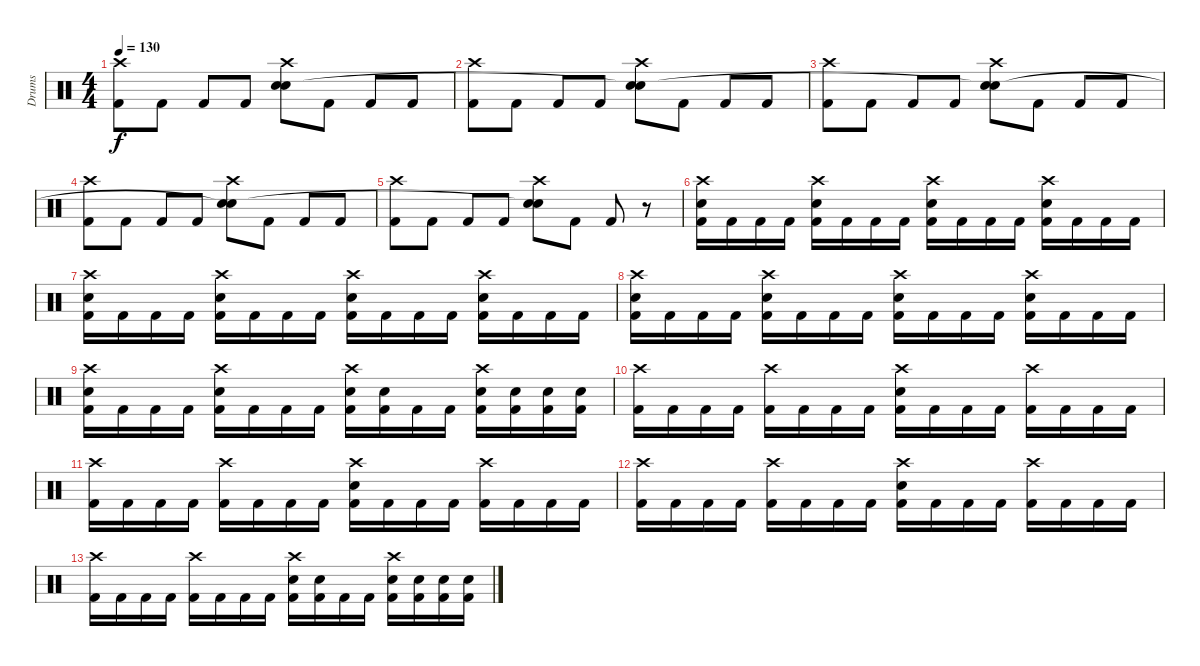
\track ("Drums" "Drums") {instrument percussion}
\staff {score}
\articulation defaults
\ts (4 4)
\tempo 130
\clef neutral
\ks c
("Crash high (hit)" "Kick (hit) 2").8{dy f} "Kick (hit) 2".8 "Kick (hit) 2".8 "Kick (hit) 2".8 ("Crash high (hit)" "Electric Snare (hit)" "Snare (hit)"{t}).8 "Kick (hit) 2".8 "Kick (hit) 2".8 "Kick (hit) 2".8 |
("Crash high (hit)" "Kick (hit) 2").8 "Kick (hit) 2".8 "Kick (hit) 2".8 "Kick (hit) 2".8 ("Crash high (hit)" "Electric Snare (hit)" "Snare (hit)"{t}).8 "Kick (hit) 2".8 "Kick (hit) 2".8 "Kick (hit) 2".8 |
("Crash high (hit)" "Kick (hit) 2").8 "Kick (hit) 2".8 "Kick (hit) 2".8 "Kick (hit) 2".8 ("Crash high (hit)" "Electric Snare (hit)" "Snare (hit)"{t}).8 "Kick (hit) 2".8 "Kick (hit) 2".8 "Kick (hit) 2".8 |
("Crash high (hit)" "Kick (hit) 2").8 "Kick (hit) 2".8 "Kick (hit) 2".8 "Kick (hit) 2".8 ("Crash high (hit)" "Electric Snare (hit)" "Snare (hit)"{t}).8 "Kick (hit) 2".8 "Kick (hit) 2".8 "Kick (hit) 2".8 |
("Crash high (hit)" "Kick (hit) 2").8 "Kick (hit) 2".8 "Kick (hit) 2".8 "Kick (hit) 2".8 ("Crash high (hit)" "Electric Snare (hit)" "Snare (hit)"{t}).8 "Kick (hit) 2".8 "Kick (hit) 2".8 r.8 |
("Crash high (hit)" "Electric Snare (hit)" "Kick (hit) 2").16 "Kick (hit) 2".16 "Kick (hit) 2".16 "Kick (hit) 2".16 ("Crash high (hit)" "Electric Snare (hit)" "Kick (hit) 2").16 "Kick (hit) 2".16 "Kick (hit) 2".16 "Kick (hit) 2".16 ("Crash high (hit)" "Electric Snare (hit)" "Kick (hit) 2").16 "Kick (hit) 2".16 "Kick (hit) 2".16 "Kick (hit) 2".16 ("Crash high (hit)" "Electric Snare (hit)" "Kick (hit) 2").16 "Kick (hit) 2".16 "Kick (hit) 2".16 "Kick (hit) 2".16 |
("Crash high (hit)" "Electric Snare (hit)" "Kick (hit) 2").16 "Kick (hit) 2".16 "Kick (hit) 2".16 "Kick (hit) 2".16 ("Crash high (hit)" "Electric Snare (hit)" "Kick (hit) 2").16 "Kick (hit) 2".16 "Kick (hit) 2".16 "Kick (hit) 2".16 ("Crash high (hit)" "Electric Snare (hit)" "Kick (hit) 2").16 "Kick (hit) 2".16 "Kick (hit) 2".16 "Kick (hit) 2".16 ("Crash high (hit)" "Electric Snare (hit)" "Kick (hit) 2").16 "Kick (hit) 2".16 "Kick (hit) 2".16 "Kick (hit) 2".16 |
("Crash high (hit)" "Electric Snare (hit)" "Kick (hit) 2").16 "Kick (hit) 2".16 "Kick (hit) 2".16 "Kick (hit) 2".16 ("Crash high (hit)" "Electric Snare (hit)" "Kick (hit) 2").16 "Kick (hit) 2".16 "Kick (hit) 2".16 "Kick (hit) 2".16 ("Crash high (hit)" "Electric Snare (hit)" "Kick (hit) 2").16 "Kick (hit) 2".16 "Kick (hit) 2".16 "Kick (hit) 2".16 ("Crash high (hit)" "Electric Snare (hit)" "Kick (hit) 2").16 "Kick (hit) 2".16 "Kick (hit) 2".16 "Kick (hit) 2".16 |
("Crash high (hit)" "Electric Snare (hit)" "Kick (hit) 2").16 "Kick (hit) 2".16 "Kick (hit) 2".16 "Kick (hit) 2".16 ("Crash high (hit)" "Electric Snare (hit)" "Kick (hit) 2").16 "Kick (hit) 2".16 "Kick (hit) 2".16 "Kick (hit) 2".16 ("Crash high (hit)" "Electric Snare (hit)" "Kick (hit) 2").16 ("Electric Snare (hit)" "Kick (hit) 2").16 "Kick (hit) 2".16 "Kick (hit) 2".16 ("Crash high (hit)" "Electric Snare (hit)" "Kick (hit) 2").16 ("Electric Snare (hit)" "Kick (hit) 2").16 ("Electric Snare (hit)" "Kick (hit) 2").16 ("Electric Snare (hit)" "Kick (hit) 2").16 |
("Crash high (hit)" "Kick (hit) 2").16 "Kick (hit) 2".16 "Kick (hit) 2".16 "Kick (hit) 2".16 ("Crash high (hit)" "Kick (hit) 2").16 "Kick (hit) 2".16 "Kick (hit) 2".16 "Kick (hit) 2".16 ("Crash high (hit)" "Electric Snare (hit)" "Kick (hit) 2").16 "Kick (hit) 2".16 "Kick (hit) 2".16 "Kick (hit) 2".16 ("Crash high (hit)" "Kick (hit) 2").16 "Kick (hit) 2".16 "Kick (hit) 2".16 "Kick (hit) 2".16 |
("Crash high (hit)" "Kick (hit) 2").16 "Kick (hit) 2".16 "Kick (hit) 2".16 "Kick (hit) 2".16 ("Crash high (hit)" "Kick (hit) 2").16 "Kick (hit) 2".16 "Kick (hit) 2".16 "Kick (hit) 2".16 ("Crash high (hit)" "Electric Snare (hit)" "Kick (hit) 2").16 "Kick (hit) 2".16 "Kick (hit) 2".16 "Kick (hit) 2".16 ("Crash high (hit)" "Kick (hit) 2").16 "Kick (hit) 2".16 "Kick (hit) 2".16 "Kick (hit) 2".16 |
("Crash high (hit)" "Kick (hit) 2").16 "Kick (hit) 2".16 "Kick (hit) 2".16 "Kick (hit) 2".16 ("Crash high (hit)" "Kick (hit) 2").16 "Kick (hit) 2".16 "Kick (hit) 2".16 "Kick (hit) 2".16 ("Crash high (hit)" "Electric Snare (hit)" "Kick (hit) 2").16 "Kick (hit) 2".16 "Kick (hit) 2".16 "Kick (hit) 2".16 ("Crash high (hit)" "Kick (hit) 2").16 "Kick (hit) 2".16 "Kick (hit) 2".16 "Kick (hit) 2".16 |
("Crash high (hit)" "Kick (hit) 2").16 "Kick (hit) 2".16 "Kick (hit) 2".16 "Kick (hit) 2".16 ("Crash high (hit)" "Kick (hit) 2").16 "Kick (hit) 2".16 "Kick (hit) 2".16 "Kick (hit) 2".16 ("Crash high (hit)" "Electric Snare (hit)" "Kick (hit) 2").16 ("Electric Snare (hit)" "Kick (hit) 2").16 "Kick (hit) 2".16 "Kick (hit) 2".16 ("Crash high (hit)" "Electric Snare (hit)" "Kick (hit) 2").16 ("Electric Snare (hit)" "Kick (hit) 2").16 ("Electric Snare (hit)" "Kick (hit) 2").16 ("Electric Snare (hit)" "Kick (hit) 2").16
